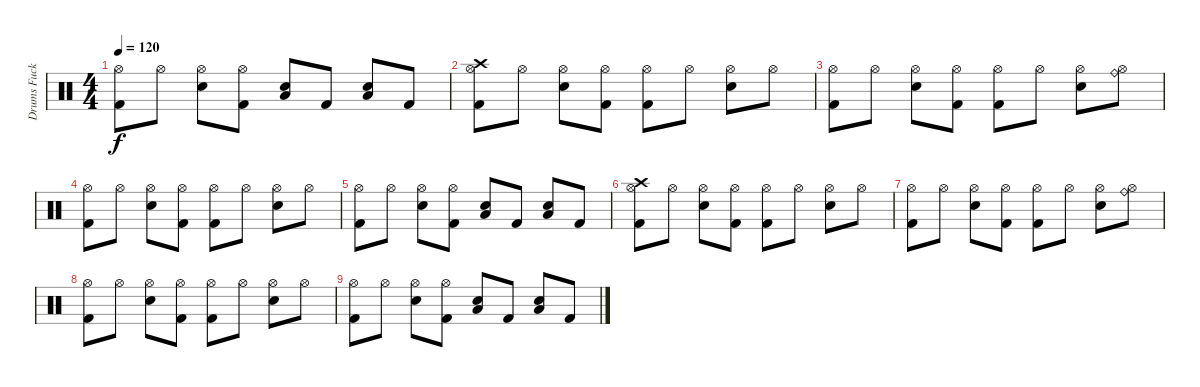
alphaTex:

\track ("Drums Fucker" "Drums Fuck") {instrument percussion}
\staff {score}
\articulation defaults
\ts (4 4)
\tempo 120
\clef neutral
\ks c
("Kick (hit) 2" "Hi-Hat (open)").8{dy f} "Hi-Hat (open)".8 ("Snare (hit) 2" "Hi-Hat (open)").8 ("Kick (hit) 2" "Hi-Hat (open)").8 ("Low Floor Tom (hit)" "Snare (hit) 2").8 "Kick (hit) 2".8 ("Low Floor Tom (hit)" "Snare (hit) 2").8 "Kick (hit) 2".8 |
("Crash high (hit)" "Kick (hit) 2" "Hi-Hat (open)").8 "Hi-Hat (open)".8 ("Snare (hit) 2" "Hi-Hat (open)").8 ("Kick (hit) 2" "Hi-Hat (open)").8 ("Kick (hit) 2" "Hi-Hat (open)").8 "Hi-Hat (open)".8 ("Snare (hit) 2" "Hi-Hat (open)").8 "Hi-Hat (open)".8 |
("Kick (hit) 2" "Hi-Hat (open)").8 "Hi-Hat (open)".8 ("Snare (hit) 2" "Hi-Hat (open)").8 ("Kick (hit) 2" "Hi-Hat (open)").8 ("Kick (hit) 2" "Hi-Hat (open)").8 "Hi-Hat (open)".8 ("Snare (hit) 2" "Hi-Hat (open)").8 ("Ride (bell)" "Hi-Hat (open)").8 |
("Kick (hit) 2" "Hi-Hat (open)").8 "Hi-Hat (open)".8 ("Snare (hit) 2" "Hi-Hat (open)").8 ("Kick (hit) 2" "Hi-Hat (open)").8 ("Kick (hit) 2" "Hi-Hat (open)").8 "Hi-Hat (open)".8 ("Snare (hit) 2" "Hi-Hat (open)").8 "Hi-Hat (open)".8 |
("Kick (hit) 2" "Hi-Hat (open)").8 "Hi-Hat (open)".8 ("Snare (hit) 2" "Hi-Hat (open)").8 ("Kick (hit) 2" "Hi-Hat (open)").8 ("Low Floor Tom (hit)" "Snare (hit) 2").8 "Kick (hit) 2".8 ("Low Floor Tom (hit)" "Snare (hit) 2").8 "Kick (hit) 2".8 |
("Crash high (hit)" "Kick (hit) 2" "Hi-Hat (open)").8 "Hi-Hat (open)".8 ("Snare (hit) 2" "Hi-Hat (open)").8 ("Kick (hit) 2" "Hi-Hat (open)").8 ("Kick (hit) 2" "Hi-Hat (open)").8 "Hi-Hat (open)".8 ("Snare (hit) 2" "Hi-Hat (open)").8 "Hi-Hat (open)".8 |
("Kick (hit) 2" "Hi-Hat (open)").8 "Hi-Hat (open)".8 ("Snare (hit) 2" "Hi-Hat (open)").8 ("Kick (hit) 2" "Hi-Hat (open)").8 ("Kick (hit) 2" "Hi-Hat (open)").8 "Hi-Hat (open)".8 ("Snare (hit) 2" "Hi-Hat (open)").8 ("Ride (bell)" "Hi-Hat (open)").8 |
("Kick (hit) 2" "Hi-Hat (open)").8 "Hi-Hat (open)".8 ("Snare (hit) 2" "Hi-Hat (open)").8 ("Kick (hit) 2" "Hi-Hat (open)").8 ("Kick (hit) 2" "Hi-Hat (open)").8 "Hi-Hat (open)".8 ("Snare (hit) 2" "Hi-Hat (open)").8 "Hi-Hat (open)".8 |
("Kick (hit) 2" "Hi-Hat (open)").8 "Hi-Hat (open)".8 ("Snare (hit) 2" "Hi-Hat (open)").8 ("Kick (hit) 2" "Hi-Hat (open)").8 ("Low Floor Tom (hit)" "Snare (hit) 2").8 "Kick (hit) 2".8 ("Low Floor Tom (hit)" "Snare (hit) 2").8 "Kick (hit) 2".8
